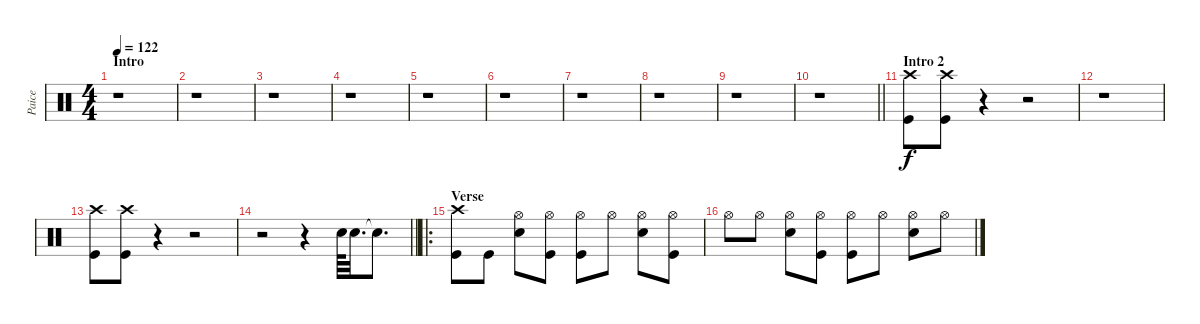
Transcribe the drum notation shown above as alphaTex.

\track ("Paice" "Paice") {instrument percussion}
\staff {score}
\articulation defaults
\ts (4 4)
\section ("" "Intro")
\tempo 122
\clef neutral
\ks c
r.1{dy f} |
r.1 |
r.1 |
r.1 |
r.1 |
r.1 |
r.1 |
r.1 |
r.1 |
\barLineRight lightlight
r.1 |
\section ("" "Intro 2")
("Crash high (hit)" "Kick (hit)").8 ("Crash high (hit)" "Kick (hit)").8 r.4 r.2 |
r.1 |
("Crash high (hit)" "Kick (hit)").8 ("Crash high (hit)" "Kick (hit)").8 r.4 r.2 |
\barLineRight lightlight
r.2 r.4 "Snare (hit) 2".64 "Snare (hit) 2".32{d} "Snare (hit)"{t}.8{d} |
\ro
\section ("" "Verse")
("Crash high (hit)" "Kick (hit)").8 "Kick (hit)".8 ("Hi-Hat (open)" "Snare (hit) 2").8 ("Hi-Hat (open)" "Kick (hit)").8 ("Hi-Hat (open)" "Kick (hit)").8 "Hi-Hat (open)".8 ("Hi-Hat (open)" "Snare (hit) 2").8 ("Hi-Hat (open)" "Kick (hit)").8 |
"Hi-Hat (open)".8 "Hi-Hat (open)".8 ("Hi-Hat (open)" "Snare (hit) 2").8 ("Hi-Hat (open)" "Kick (hit)").8 ("Hi-Hat (open)" "Kick (hit)").8 "Hi-Hat (open)".8 ("Hi-Hat (open)" "Snare (hit) 2").8 "Hi-Hat (open)".8
